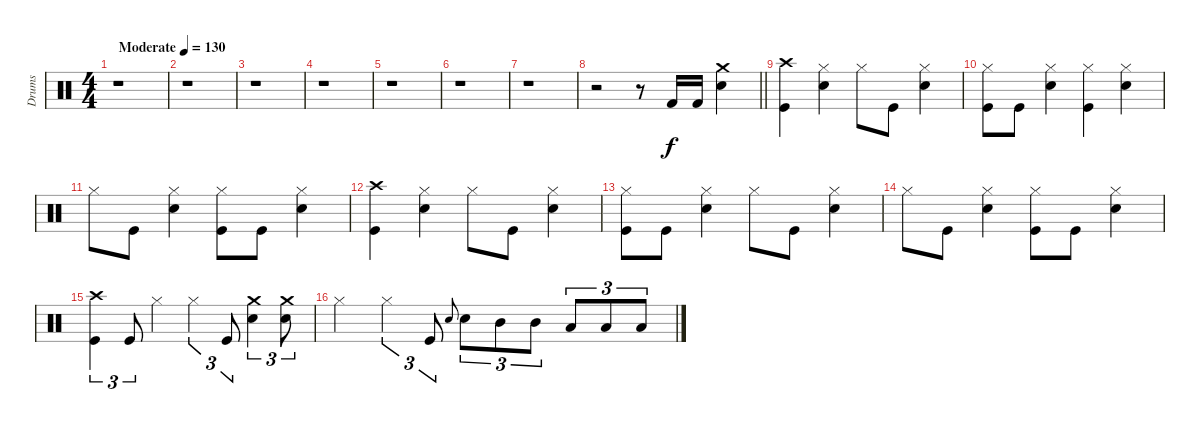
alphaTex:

\track ("Drums" "Drums") {instrument percussion}
\staff {score}
\articulation defaults
\ts (4 4)
\tempo (130 "Moderate")
\clef neutral
\ks c
r.1{dy f} |
r.1 |
r.1 |
r.1 |
r.1 |
r.1 |
r.1 |
\barLineRight lightlight
r.2 r.8 "Kick (hit) 2".16 "Kick (hit) 2".16 ("Crash medium (hit)" "Snare (hit) 2").4 |
("Crash high (hit)" "Kick (hit)").4 ("Hi-Hat (closed)" "Snare (hit) 2").4 "Hi-Hat (closed)".8 "Kick (hit)".8 ("Hi-Hat (closed)" "Snare (hit) 2").4 |
("Hi-Hat (closed)" "Kick (hit)").8 "Kick (hit)".8 ("Hi-Hat (closed)" "Snare (hit) 2").4 ("Hi-Hat (closed)" "Kick (hit)").4 ("Hi-Hat (closed)" "Snare (hit) 2").4 |
"Hi-Hat (closed)".8 "Kick (hit)".8 ("Hi-Hat (closed)" "Snare (hit) 2").4 ("Hi-Hat (closed)" "Kick (hit)").8 "Kick (hit)".8 ("Hi-Hat (closed)" "Snare (hit) 2").4 |
("Crash high (hit)" "Kick (hit)").4 ("Hi-Hat (closed)" "Snare (hit) 2").4 "Hi-Hat (closed)".8 "Kick (hit)".8 ("Hi-Hat (closed)" "Snare (hit) 2").4 |
("Hi-Hat (closed)" "Kick (hit)").8 "Kick (hit)".8 ("Hi-Hat (closed)" "Snare (hit) 2").4 "Hi-Hat (closed)".8 "Kick (hit)".8 ("Hi-Hat (closed)" "Snare (hit) 2").4 |
"Hi-Hat (closed)".8 "Kick (hit)".8 ("Hi-Hat (closed)" "Snare (hit) 2").4 ("Hi-Hat (closed)" "Kick (hit)").8 "Kick (hit)".8 ("Hi-Hat (closed)" "Snare (hit) 2").4 |
("Crash high (hit)" "Kick (hit)").4{tu (3 2)} "Kick (hit)".8{tu (3 2)} "Hi-Hat (closed)".4 "Hi-Hat (closed)".4{tu (3 2)} "Kick (hit)".8{tu (3 2)} ("Crash medium (hit)" "Snare (hit) 2").4{tu (3 2)} ("Crash medium (hit)" "Snare (hit) 2").8{tu (3 2)} |
"Hi-Hat (closed)".4 "Hi-Hat (closed)".4{tu (3 2)} "Kick (hit)".8{tu (3 2)} "Snare (hit) 2".8{gr onbeat} "Snare (hit) 2".8{tu (3 2)} "Mid Tom (hit)".8{tu (3 2)} "Mid Tom (hit)".8{tu (3 2)} "Low Tom (hit)".8{tu (3 2)} "Low Tom (hit)".8{tu (3 2)} "Low Tom (hit)".8{tu (3 2)}
